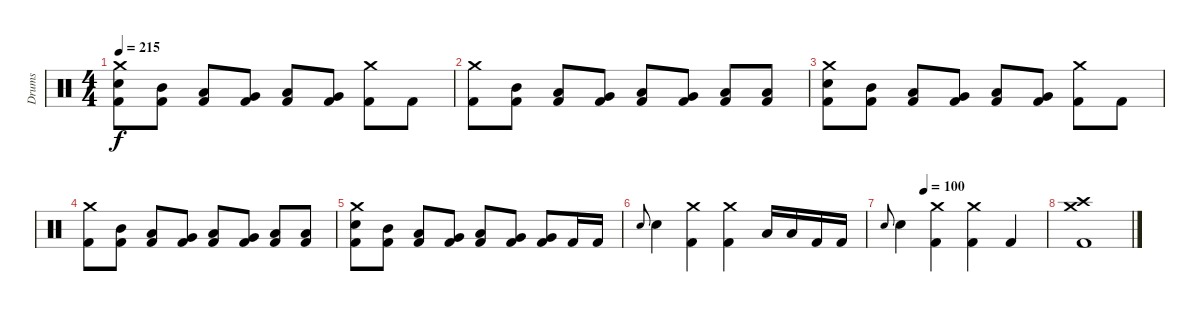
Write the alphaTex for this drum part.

\track ("Drums" "Drums") {instrument percussion}
\staff {score}
\articulation defaults
\ts (4 4)
\tempo 215
\clef neutral
\ks c
("Electric Snare (hit)" "Kick (hit) 2" "Crash medium (hit)").8{dy f} ("Kick (hit) 2" "Mid Tom (hit)").8 ("Kick (hit) 2" "Low Tom (hit)").8 ("Kick (hit) 2" "Very Low Tom (hit)").8 ("Kick (hit) 2" "Low Tom (hit)").8 ("Kick (hit) 2" "Very Low Tom (hit)").8 ("Crash medium (hit)" "Kick (hit) 2").8 "Kick (hit) 2".8 |
("Kick (hit) 2" "Crash medium (hit)").8 ("Kick (hit) 2" "Mid Tom (hit)").8 ("Kick (hit) 2" "Low Tom (hit)").8 ("Kick (hit) 2" "Very Low Tom (hit)").8 ("Kick (hit) 2" "Low Tom (hit)").8 ("Kick (hit) 2" "Very Low Tom (hit)").8 ("Kick (hit) 2" "Low Tom (hit)").8 ("Kick (hit) 2" "Low Floor Tom (hit)").8 |
("Electric Snare (hit)" "Kick (hit) 2" "Crash medium (hit)").8 ("Kick (hit) 2" "Mid Tom (hit)").8 ("Kick (hit) 2" "Low Tom (hit)").8 ("Kick (hit) 2" "Very Low Tom (hit)").8 ("Kick (hit) 2" "Low Tom (hit)").8 ("Kick (hit) 2" "Very Low Tom (hit)").8 ("Crash medium (hit)" "Kick (hit) 2").8 "Kick (hit) 2".8 |
("Kick (hit) 2" "Crash medium (hit)").8 ("Kick (hit) 2" "Mid Tom (hit)").8 ("Kick (hit) 2" "Low Tom (hit)").8 ("Kick (hit) 2" "Very Low Tom (hit)").8 ("Kick (hit) 2" "Low Tom (hit)").8 ("Kick (hit) 2" "Very Low Tom (hit)").8 ("Kick (hit) 2" "Low Tom (hit)").8 ("Kick (hit) 2" "Low Floor Tom (hit)").8 |
("Electric Snare (hit)" "Kick (hit) 2" "Crash medium (hit)").8 ("Kick (hit) 2" "Mid Tom (hit)").8 ("Kick (hit) 2" "Low Tom (hit)").8 ("Kick (hit) 2" "Very Low Tom (hit)").8 ("Kick (hit) 2" "Low Tom (hit)").8 ("Kick (hit) 2" "Very Low Tom (hit)").8 ("Very Low Tom (hit)" "Kick (hit) 2").8 "Kick (hit) 2".16 "Kick (hit) 2".16 |
"Electric Snare (hit)".8{gr onbeat} "Electric Snare (hit)".4 ("Crash medium (hit)" "Kick (hit) 2").4 ("Crash medium (hit)" "Kick (hit) 2").4 "Low Tom (hit)".16 "Low Tom (hit)".16 "Kick (hit) 2".16 "Kick (hit) 2".16 |
\tempo (100 0.25)
"Electric Snare (hit)".8{gr onbeat} "Electric Snare (hit)".4 ("Crash medium (hit)" "Kick (hit) 2").4 ("Crash medium (hit)" "Kick (hit) 2").4 "Kick (hit) 2".4 |
("Crash high (hit)" "Crash medium (hit)" "Kick (hit) 2").1
